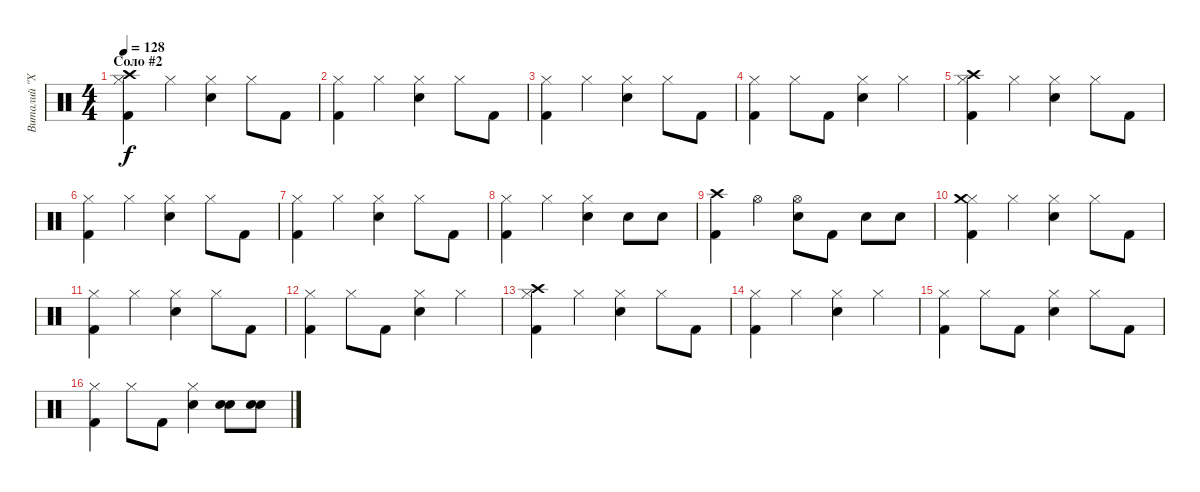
\track ("Виталий \"Хамер\" Лядов" "Виталий \"Х") {instrument percussion}
\staff {score}
\articulation defaults
\ts (4 4)
\section ("" "Соло #2")
\tempo 128
\clef neutral
\ks c
("Kick (hit) 2" "Hi-Hat (closed)" "Crash high (hit)").4{dy f} "Hi-Hat (closed)".4 ("Electric Snare (hit)" "Hi-Hat (closed)").4 "Hi-Hat (closed)".8 "Kick (hit) 2".8 |
("Kick (hit) 2" "Hi-Hat (closed)").4 "Hi-Hat (closed)".4 ("Electric Snare (hit)" "Hi-Hat (closed)").4 "Hi-Hat (closed)".8 "Kick (hit) 2".8 |
("Kick (hit) 2" "Hi-Hat (closed)").4 "Hi-Hat (closed)".4 ("Electric Snare (hit)" "Hi-Hat (closed)").4 "Hi-Hat (closed)".8 "Kick (hit) 2".8 |
("Kick (hit) 2" "Hi-Hat (closed)").4 "Hi-Hat (closed)".8 "Kick (hit) 2".8 ("Electric Snare (hit)" "Hi-Hat (closed)").4 "Hi-Hat (closed)".4 |
("Kick (hit) 2" "Hi-Hat (closed)" "Crash high (hit)").4 "Hi-Hat (closed)".4 ("Electric Snare (hit)" "Hi-Hat (closed)").4 "Hi-Hat (closed)".8 "Kick (hit) 2".8 |
("Kick (hit) 2" "Hi-Hat (closed)").4 "Hi-Hat (closed)".4 ("Electric Snare (hit)" "Hi-Hat (closed)").4 "Hi-Hat (closed)".8 "Kick (hit) 2".8 |
("Kick (hit) 2" "Hi-Hat (closed)").4 "Hi-Hat (closed)".4 ("Electric Snare (hit)" "Hi-Hat (closed)").4 "Hi-Hat (closed)".8 "Kick (hit) 2".8 |
("Kick (hit) 2" "Hi-Hat (closed)").4 "Hi-Hat (closed)".4 ("Electric Snare (hit)" "Hi-Hat (closed)").4 "Electric Snare (hit)".8 "Electric Snare (hit)".8 |
("Kick (hit) 2" "Crash high (hit)").4 "Hi-Hat (open)".4 ("Electric Snare (hit)" "Hi-Hat (open)").8 "Kick (hit) 2".8 "Electric Snare (hit)".8 "Electric Snare (hit)".8 |
("Kick (hit) 2" "Hi-Hat (closed)" "Crash medium (hit)").4 "Hi-Hat (closed)".4 ("Electric Snare (hit)" "Hi-Hat (closed)").4 "Hi-Hat (closed)".8 "Kick (hit) 2".8 |
("Kick (hit) 2" "Hi-Hat (closed)").4 "Hi-Hat (closed)".4 ("Electric Snare (hit)" "Hi-Hat (closed)").4 "Hi-Hat (closed)".8 "Kick (hit) 2".8 |
("Kick (hit) 2" "Hi-Hat (closed)").4 "Hi-Hat (closed)".8 "Kick (hit) 2".8 ("Electric Snare (hit)" "Hi-Hat (closed)").4 "Hi-Hat (closed)".4 |
("Kick (hit) 2" "Hi-Hat (closed)" "Crash high (hit)").4 "Hi-Hat (closed)".4 ("Electric Snare (hit)" "Hi-Hat (closed)").4 "Hi-Hat (closed)".8 "Kick (hit) 2".8 |
("Kick (hit) 2" "Hi-Hat (closed)").4 "Hi-Hat (closed)".4 ("Electric Snare (hit)" "Hi-Hat (closed)").4 "Hi-Hat (closed)".4 |
("Kick (hit) 2" "Hi-Hat (closed)").4 "Hi-Hat (closed)".8 "Kick (hit) 2".8 ("Electric Snare (hit)" "Hi-Hat (closed)").4 "Hi-Hat (closed)".8 "Kick (hit) 2".8 |
("Kick (hit) 2" "Hi-Hat (closed)").4 "Hi-Hat (closed)".8 "Kick (hit) 2".8 ("Electric Snare (hit)" "Hi-Hat (closed)").4 ("Electric Snare (hit)" "Electric Snare (hit)").8 ("Electric Snare (hit)" "Electric Snare (hit)").8
